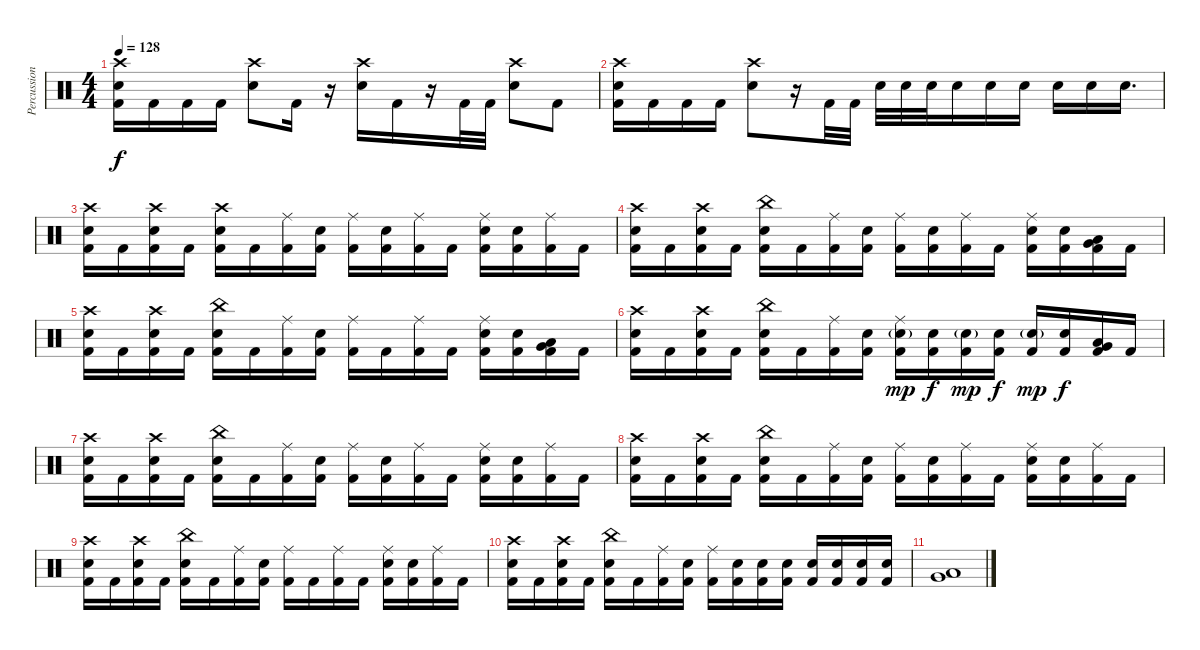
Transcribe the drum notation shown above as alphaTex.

\track ("Percussion" "Percussion") {instrument percussion}
\staff {score}
\articulation defaults
\ts (4 4)
\tempo 128
\clef neutral
\ks c
("Crash high (hit)" "Snare (hit) 2" "Kick (hit) 2").16{dy f} "Kick (hit) 2".16 "Kick (hit) 2".16 "Kick (hit) 2".16 ("Crash high (hit)" "Snare (hit) 2").8 "Kick (hit) 2".16 r.16 ("Crash high (hit)" "Snare (hit) 2").16 "Kick (hit) 2".16 r.16 "Kick (hit) 2".32 "Kick (hit) 2".32 ("Crash high (hit)" "Snare (hit) 2").8 "Kick (hit) 2".8 |
("Crash high (hit)" "Snare (hit) 2" "Kick (hit) 2").16 "Kick (hit) 2".16 "Kick (hit) 2".16 "Kick (hit) 2".16 ("Crash high (hit)" "Snare (hit) 2").8 r.16 "Kick (hit) 2".32 "Kick (hit) 2".32 "Snare (hit) 2".32 "Snare (hit) 2".32 "Snare (hit) 2".32 "Snare (hit) 2".16 "Snare (hit) 2".16 "Snare (hit) 2".16 "Snare (hit) 2".16 "Snare (hit) 2".16 "Snare (hit) 2".16{d} |
("Crash high (hit)" "Snare (hit) 2" "Kick (hit) 2").16 "Kick (hit) 2".16 ("Crash high (hit)" "Snare (hit) 2" "Kick (hit) 2").16 "Kick (hit) 2".16 ("Crash high (hit)" "Snare (hit) 2" "Kick (hit) 2").16 "Kick (hit) 2".16 ("Ride (middle)" "Kick (hit) 2").16 ("Snare (hit) 2" "Kick (hit) 2").16 ("Ride (middle)" "Kick (hit) 2").16 ("Snare (hit) 2" "Kick (hit) 2").16 ("Ride (middle)" "Kick (hit) 2").16 "Kick (hit) 2".16 ("Ride (middle)" "Snare (hit) 2" "Kick (hit) 2").16 ("Snare (hit) 2" "Kick (hit) 2").16 ("Ride (middle)" "Kick (hit) 2").16 "Kick (hit) 2".16 |
("Crash high (hit)" "Snare (hit) 2" "Kick (hit) 2").16 "Kick (hit) 2".16 ("Crash high (hit)" "Snare (hit) 2" "Kick (hit) 2").16 "Kick (hit) 2".16 ("China (hit)" "Snare (hit) 2" "Kick (hit) 2").16 "Kick (hit) 2".16 ("Ride (middle)" "Kick (hit) 2").16 ("Snare (hit) 2" "Kick (hit) 2").16 ("Ride (middle)" "Kick (hit) 2").16 ("Snare (hit) 2" "Kick (hit) 2").16 ("Ride (middle)" "Kick (hit) 2").16 "Kick (hit) 2".16 ("Ride (middle)" "Snare (hit) 2" "Kick (hit) 2").16 ("Snare (hit) 2" "Kick (hit) 2").16 ("Very Low Tom (hit)" "Low Tom (hit)" "Kick (hit) 2").16 "Kick (hit) 2".16 |
("Crash high (hit)" "Snare (hit) 2" "Kick (hit) 2").16 "Kick (hit) 2".16 ("Crash high (hit)" "Snare (hit) 2" "Kick (hit) 2").16 "Kick (hit) 2".16 ("China (hit)" "Snare (hit) 2" "Kick (hit) 2").16 "Kick (hit) 2".16 ("Ride (middle)" "Kick (hit) 2").16 ("Snare (hit) 2" "Kick (hit) 2").16 ("Ride (middle)" "Kick (hit) 2").16 "Kick (hit) 2".16 ("Ride (middle)" "Kick (hit) 2").16 "Kick (hit) 2".16 ("Ride (middle)" "Snare (hit) 2" "Kick (hit) 2").16 ("Snare (hit) 2" "Kick (hit) 2").16 ("Very Low Tom (hit)" "Low Tom (hit)" "Kick (hit) 2").16 "Kick (hit) 2".16 |
("Crash high (hit)" "Snare (hit) 2" "Kick (hit) 2").16 "Kick (hit) 2".16 ("Crash high (hit)" "Snare (hit) 2" "Kick (hit) 2").16 "Kick (hit) 2".16 ("China (hit)" "Snare (hit) 2" "Kick (hit) 2").16 "Kick (hit) 2".16 ("Ride (middle)" "Kick (hit) 2").16 ("Snare (hit) 2" "Kick (hit) 2").16 ("Ride (middle)" "Snare (hit) 2"{g} "Kick (hit) 2").16{dy mp} ("Snare (hit) 2" "Kick (hit) 2").16{dy f} ("Snare (hit) 2"{g} "Kick (hit) 2").16{dy mp} ("Snare (hit) 2" "Kick (hit) 2").16{dy f} ("Snare (hit) 2"{g} "Kick (hit) 2").16{dy mp} ("Snare (hit) 2" "Kick (hit) 2").16{dy f} ("Very Low Tom (hit)" "Low Tom (hit)" "Kick (hit) 2").16 "Kick (hit) 2".16 |
("Crash high (hit)" "Snare (hit) 2" "Kick (hit) 2").16 "Kick (hit) 2".16 ("Crash high (hit)" "Snare (hit) 2" "Kick (hit) 2").16 "Kick (hit) 2".16 ("China (hit)" "Snare (hit) 2" "Kick (hit) 2").16 "Kick (hit) 2".16 ("Ride (middle)" "Kick (hit) 2").16 ("Snare (hit) 2" "Kick (hit) 2").16 ("Ride (middle)" "Kick (hit) 2").16 ("Snare (hit) 2" "Kick (hit) 2").16 ("Ride (middle)" "Kick (hit) 2").16 "Kick (hit) 2".16 ("Ride (middle)" "Snare (hit) 2" "Kick (hit) 2").16 ("Snare (hit) 2" "Kick (hit) 2").16 ("Ride (middle)" "Kick (hit) 2").16 "Kick (hit) 2".16 |
("Crash high (hit)" "Snare (hit) 2" "Kick (hit) 2").16 "Kick (hit) 2".16 ("Crash high (hit)" "Snare (hit) 2" "Kick (hit) 2").16 "Kick (hit) 2".16 ("China (hit)" "Snare (hit) 2" "Kick (hit) 2").16 "Kick (hit) 2".16 ("Ride (middle)" "Kick (hit) 2").16 ("Snare (hit) 2" "Kick (hit) 2").16 ("Ride (middle)" "Kick (hit) 2").16 ("Snare (hit) 2" "Kick (hit) 2").16 ("Ride (middle)" "Kick (hit) 2").16 "Kick (hit) 2".16 ("Ride (middle)" "Snare (hit) 2" "Kick (hit) 2").16 ("Snare (hit) 2" "Kick (hit) 2").16 ("Ride (middle)" "Kick (hit) 2").16 "Kick (hit) 2".16 |
("Crash high (hit)" "Snare (hit) 2" "Kick (hit) 2").16 "Kick (hit) 2".16 ("Crash high (hit)" "Snare (hit) 2" "Kick (hit) 2").16 "Kick (hit) 2".16 ("China (hit)" "Snare (hit) 2" "Kick (hit) 2").16 "Kick (hit) 2".16 ("Ride (middle)" "Kick (hit) 2").16 ("Snare (hit) 2" "Kick (hit) 2").16 ("Ride (middle)" "Kick (hit) 2").16 "Kick (hit) 2".16 ("Ride (middle)" "Kick (hit) 2").16 "Kick (hit) 2".16 ("Ride (middle)" "Snare (hit) 2" "Kick (hit) 2").16 ("Snare (hit) 2" "Kick (hit) 2").16 ("Ride (middle)" "Kick (hit) 2").16 "Kick (hit) 2".16 |
("Crash high (hit)" "Snare (hit) 2" "Kick (hit) 2").16 "Kick (hit) 2".16 ("Crash high (hit)" "Snare (hit) 2" "Kick (hit) 2").16 "Kick (hit) 2".16 ("China (hit)" "Snare (hit) 2" "Kick (hit) 2").16 "Kick (hit) 2".16 ("Ride (middle)" "Kick (hit) 2").16 ("Snare (hit) 2" "Kick (hit) 2").16 ("Ride (middle)" "Kick (hit) 2").16 ("Snare (hit) 2" "Kick (hit) 2").16 ("Snare (hit) 2" "Kick (hit) 2").16 ("Snare (hit) 2" "Kick (hit) 2").16 ("Snare (hit) 2" "Kick (hit) 2").16 ("Snare (hit) 2" "Kick (hit) 2").16 ("Snare (hit) 2" "Kick (hit) 2").16 ("Snare (hit) 2" "Kick (hit) 2").16 |
("Very Low Tom (hit)" "Low Tom (hit)").1
